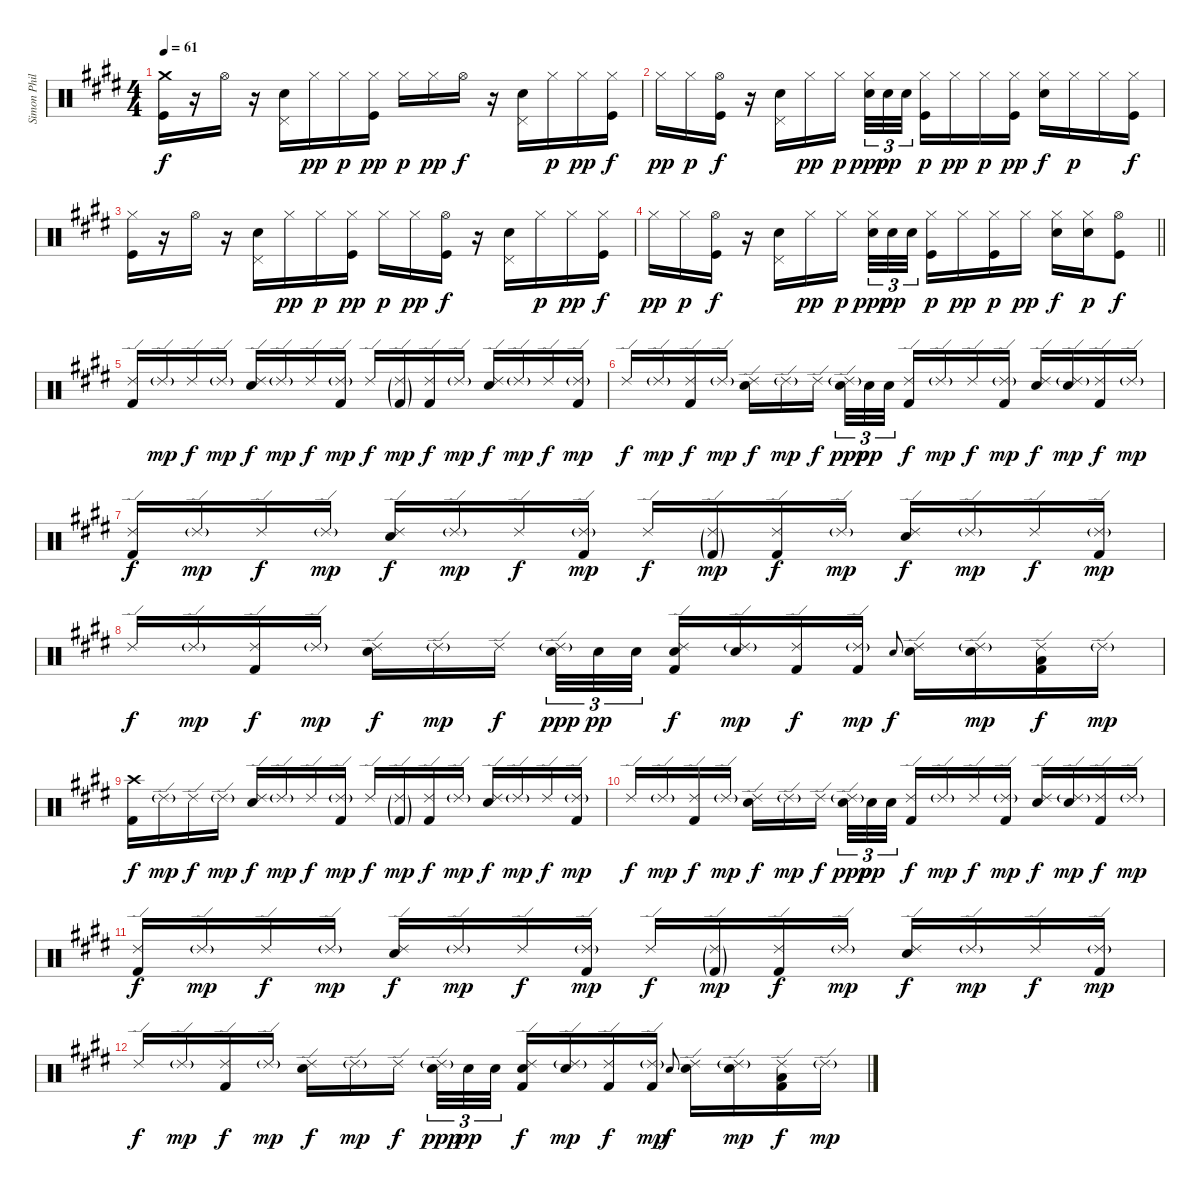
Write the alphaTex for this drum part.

\track ("Simon Phillips" "Simon Phil") {instrument percussion}
\staff {score}
\articulation defaults
\ts (4 4)
\tempo 61
\clef neutral
\ks e
("Crash medium (hit)" "Kick (hit)").16{dy f} r.16 "Hi-Hat (open)".16 r.16 ("Pedal Hi-Hat (hit)" "Electric Snare (hit)").16 "Hi-Hat (closed)".16{dy pp} "Hi-Hat (closed)".16{dy p} ("Hi-Hat (closed)" "Kick (hit)").16{dy pp} "Hi-Hat (closed)".16{dy p} "Hi-Hat (closed)".16{dy pp} "Hi-Hat (open)".16{dy f} r.16 ("Pedal Hi-Hat (hit)" "Electric Snare (hit)").16 "Hi-Hat (closed)".16{dy p} "Hi-Hat (closed)".16{dy pp} ("Hi-Hat (closed)" "Kick (hit)").16{dy f} |
"Hi-Hat (closed)".16{dy pp} "Hi-Hat (closed)".16{dy p} ("Hi-Hat (open)" "Kick (hit)").16{dy f} r.16 ("Pedal Hi-Hat (hit)" "Electric Snare (hit)").16 "Hi-Hat (closed)".16{dy pp} "Hi-Hat (closed)".16{dy p beam splitsecondary} ("Hi-Hat (closed)" "Electric Snare (hit)").32{tu (3 2) dy ppp} "Electric Snare (hit)".32{tu (3 2) dy pp} "Electric Snare (hit)".32{tu (3 2)} ("Hi-Hat (closed)" "Kick (hit)").16{dy p} "Hi-Hat (closed)".16{dy pp} "Hi-Hat (closed)".16{dy p} ("Hi-Hat (closed)" "Kick (hit)").16{dy pp} ("Hi-Hat (closed)" "Electric Snare (hit)").16{dy f} "Hi-Hat (closed)".16{dy p} "Hi-Hat (closed)".16 ("Hi-Hat (closed)" "Kick (hit)").16{dy f} |
("Hi-Hat (closed)" "Kick (hit)").16 r.16 "Hi-Hat (open)".16 r.16 ("Pedal Hi-Hat (hit)" "Electric Snare (hit)").16 "Hi-Hat (closed)".16{dy pp} "Hi-Hat (closed)".16{dy p} ("Hi-Hat (closed)" "Kick (hit)").16{dy pp} "Hi-Hat (closed)".16{dy p} "Hi-Hat (closed)".16{dy pp} ("Hi-Hat (open)" "Kick (hit)").16{dy f} r.16 ("Pedal Hi-Hat (hit)" "Electric Snare (hit)").16 "Hi-Hat (closed)".16{dy p} "Hi-Hat (closed)".16{dy pp} ("Hi-Hat (closed)" "Kick (hit)").16{dy f} |
\barLineRight lightlight "Hi-Hat (closed)".16{dy pp} "Hi-Hat (closed)".16{dy p}
("Hi-Hat (open)" "Kick (hit)").16{dy f} r.16 ("Pedal Hi-Hat (hit)" "Electric Snare (hit)").16 "Hi-Hat (closed)".16{dy pp} "Hi-Hat (closed)".16{dy p beam splitsecondary} ("Hi-Hat (closed)" "Electric Snare (hit)").32{tu (3 2) dy ppp} "Electric Snare (hit)".32{tu (3 2) dy pp} "Electric Snare (hit)".32{tu (3 2)} ("Hi-Hat (closed)" "Kick (hit)").16{dy p} "Hi-Hat (closed)".16{dy pp} ("Hi-Hat (closed)" "Kick (hit)").16{dy p} "Hi-Hat (closed)".16{dy pp} ("Hi-Hat (closed)" "Electric Snare (hit)").16{dy f} ("Hi-Hat (closed)" "Electric Snare (hit)").16{dy p} ("Hi-Hat (open)" "Kick (hit)").8{dy f} |
\section ("" "")
("Ride (edge) 2" "Kick (hit) 2").16 "Ride (edge) 2"{g}.16{dy mp} "Ride (edge) 2".16{dy f} "Ride (edge) 2"{g}.16{dy mp} ("Ride (edge) 2" "Electric Snare (hit)").16{dy f} "Ride (edge) 2"{g}.16{dy mp} "Ride (edge) 2".16{dy f} ("Ride (edge) 2"{g} "Kick (hit) 2").16{dy mp} "Ride (edge) 2".16{dy f} ("Ride (edge) 2"{g} "Kick (hit) 2"{g}).16{dy mp} ("Ride (edge) 2" "Kick (hit) 2").16{dy f} "Ride (edge) 2"{g}.16{dy mp} ("Ride (edge) 2" "Electric Snare (hit)").16{dy f} "Ride (edge) 2"{g}.16{dy mp} "Ride (edge) 2".16{dy f} ("Ride (edge) 2"{g} "Kick (hit) 2").16{dy mp} |
"Ride (edge) 2".16{dy f} "Ride (edge) 2"{g}.16{dy mp} ("Ride (edge) 2" "Kick (hit) 2").16{dy f} "Ride (edge) 2"{g}.16{dy mp} ("Ride (edge) 2" "Electric Snare (hit)").16{dy f} "Ride (edge) 2"{g}.16{dy mp} "Ride (edge) 2".16{dy f beam splitsecondary} ("Ride (edge) 2"{g} "Electric Snare (hit)").32{tu (3 2) dy ppp} "Electric Snare (hit)".32{tu (3 2) dy pp} "Electric Snare (hit)".32{tu (3 2)} ("Ride (edge) 2" "Kick (hit) 2").16{dy f} "Ride (edge) 2"{g}.16{dy mp} "Ride (edge) 2".16{dy f} ("Ride (edge) 2"{g} "Kick (hit) 2").16{dy mp} ("Ride (edge) 2" "Electric Snare (hit)").16{dy f} ("Ride (edge) 2"{g} "Electric Snare (hit)").16{dy mp} ("Ride (edge) 2" "Kick (hit) 2").16{dy f} "Ride (edge) 2"{g}.16{dy mp} |
("Ride (edge) 2" "Kick (hit) 2").16{dy f} "Ride (edge) 2"{g}.16{dy mp} "Ride (edge) 2".16{dy f} "Ride (edge) 2"{g}.16{dy mp} ("Ride (edge) 2" "Electric Snare (hit)").16{dy f} "Ride (edge) 2"{g}.16{dy mp} "Ride (edge) 2".16{dy f} ("Ride (edge) 2"{g} "Kick (hit) 2").16{dy mp} "Ride (edge) 2".16{dy f} ("Ride (edge) 2"{g} "Kick (hit) 2"{g}).16{dy mp} ("Ride (edge) 2" "Kick (hit) 2").16{dy f} "Ride (edge) 2"{g}.16{dy mp} ("Ride (edge) 2" "Electric Snare (hit)").16{dy f} "Ride (edge) 2"{g}.16{dy mp} "Ride (edge) 2".16{dy f} ("Ride (edge) 2"{g} "Kick (hit) 2").16{dy mp} |
"Ride (edge) 2".16{dy f} "Ride (edge) 2"{g}.16{dy mp} ("Ride (edge) 2" "Kick (hit) 2").16{dy f} "Ride (edge) 2"{g}.16{dy mp} ("Ride (edge) 2" "Electric Snare (hit)").16{dy f} "Ride (edge) 2"{g}.16{dy mp} "Ride (edge) 2".16{dy f beam splitsecondary} ("Ride (edge) 2"{g} "Electric Snare (hit)").32{tu (3 2) dy ppp} "Electric Snare (hit)".32{tu (3 2) dy pp} "Electric Snare (hit)".32{tu (3 2)} ("Ride (edge) 2" "Electric Snare (hit)" "Kick (hit) 2").16{dy f} ("Ride (edge) 2"{g} "Electric Snare (hit)").16{dy mp} ("Ride (edge) 2" "Kick (hit) 2").16{dy f} ("Ride (edge) 2"{g} "Kick (hit) 2").16{dy mp} "Electric Snare (hit)".8{gr onbeat dy f} ("Ride (edge) 2" "Electric Snare (hit)").16 ("Ride (edge) 2"{g} "Electric Snare (hit)").16{dy mp} ("Ride (edge) 2" "Low Tom (hit)" "Kick (hit) 2").16{dy f} "Ride (edge) 2"{g}.16{dy mp} |
("Crash high (hit)" "Kick (hit) 2").16{dy f} "Ride (edge) 2"{g}.16{dy mp} "Ride (edge) 2".16{dy f} "Ride (edge) 2"{g}.16{dy mp} ("Ride (edge) 2" "Electric Snare (hit)").16{dy f} "Ride (edge) 2"{g}.16{dy mp} "Ride (edge) 2".16{dy f} ("Ride (edge) 2"{g} "Kick (hit) 2").16{dy mp} "Ride (edge) 2".16{dy f} ("Ride (edge) 2"{g} "Kick (hit) 2"{g}).16{dy mp} ("Ride (edge) 2" "Kick (hit) 2").16{dy f} "Ride (edge) 2"{g}.16{dy mp} ("Ride (edge) 2" "Electric Snare (hit)").16{dy f} "Ride (edge) 2"{g}.16{dy mp} "Ride (edge) 2".16{dy f} ("Ride (edge) 2"{g} "Kick (hit) 2").16{dy mp} |
"Ride (edge) 2".16{dy f} "Ride (edge) 2"{g}.16{dy mp} ("Ride (edge) 2" "Kick (hit) 2").16{dy f} "Ride (edge) 2"{g}.16{dy mp} ("Ride (edge) 2" "Electric Snare (hit)").16{dy f} "Ride (edge) 2"{g}.16{dy mp} "Ride (edge) 2".16{dy f beam splitsecondary} ("Ride (edge) 2"{g} "Electric Snare (hit)").32{tu (3 2) dy ppp} "Electric Snare (hit)".32{tu (3 2) dy pp} "Electric Snare (hit)".32{tu (3 2)} ("Ride (edge) 2" "Kick (hit) 2").16{dy f} "Ride (edge) 2"{g}.16{dy mp} "Ride (edge) 2".16{dy f} ("Ride (edge) 2"{g} "Kick (hit) 2").16{dy mp} ("Ride (edge) 2" "Electric Snare (hit)").16{dy f} ("Ride (edge) 2"{g} "Electric Snare (hit)").16{dy mp} ("Ride (edge) 2" "Kick (hit) 2").16{dy f} "Ride (edge) 2"{g}.16{dy mp} |
("Ride (edge) 2" "Kick (hit) 2").16{dy f} "Ride (edge) 2"{g}.16{dy mp} "Ride (edge) 2".16{dy f} "Ride (edge) 2"{g}.16{dy mp} ("Ride (edge) 2" "Electric Snare (hit)").16{dy f} "Ride (edge) 2"{g}.16{dy mp} "Ride (edge) 2".16{dy f} ("Ride (edge) 2"{g} "Kick (hit) 2").16{dy mp} "Ride (edge) 2".16{dy f} ("Ride (edge) 2"{g} "Kick (hit) 2"{g}).16{dy mp} ("Ride (edge) 2" "Kick (hit) 2").16{dy f} "Ride (edge) 2"{g}.16{dy mp} ("Ride (edge) 2" "Electric Snare (hit)").16{dy f} "Ride (edge) 2"{g}.16{dy mp} "Ride (edge) 2".16{dy f} ("Ride (edge) 2"{g} "Kick (hit) 2").16{dy mp} |
"Ride (edge) 2".16{dy f} "Ride (edge) 2"{g}.16{dy mp} ("Ride (edge) 2" "Kick (hit) 2").16{dy f} "Ride (edge) 2"{g}.16{dy mp} ("Ride (edge) 2" "Electric Snare (hit)").16{dy f} "Ride (edge) 2"{g}.16{dy mp} "Ride (edge) 2".16{dy f beam splitsecondary} ("Ride (edge) 2"{g} "Electric Snare (hit)").32{tu (3 2) dy ppp} "Electric Snare (hit)".32{tu (3 2) dy pp} "Electric Snare (hit)".32{tu (3 2)} ("Ride (edge) 2" "Electric Snare (hit)" "Kick (hit) 2").16{dy f} ("Ride (edge) 2"{g} "Electric Snare (hit)").16{dy mp} ("Ride (edge) 2" "Kick (hit) 2").16{dy f} ("Ride (edge) 2"{g} "Kick (hit) 2").16{dy mp} "Electric Snare (hit)".8{gr onbeat dy f} ("Ride (edge) 2" "Electric Snare (hit)").16 ("Ride (edge) 2"{g} "Electric Snare (hit)").16{dy mp} ("Ride (edge) 2" "Low Tom (hit)" "Kick (hit) 2").16{dy f} "Ride (edge) 2"{g}.16{dy mp}
